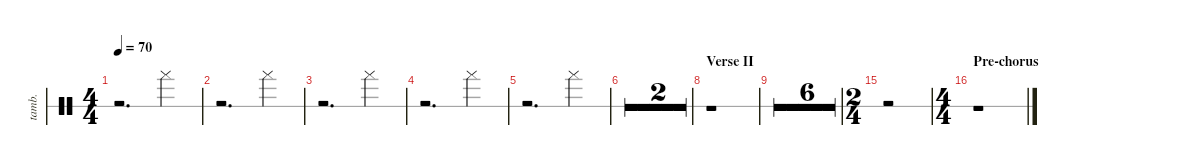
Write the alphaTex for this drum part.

\defaultSystemsLayout 4
\hideDynamics
\bracketExtendMode nobrackets
\otherSystemsTrackNameOrientation horizontal
\track ("Tambourine" "tamb.") {defaultSystemsLayout 4 multiBarRest instrument percussion}
\staff {score 1}
\articulation defaults
\ts (4 4)
\tempo 70
\clef neutral
\ks c
r.2{d dy ff} "Tambourine (hand)".4 |
r.2{d} "Tambourine (hand)".4 |
r.2{d} "Tambourine (hand)".4 |
r.2{d} "Tambourine (hand)".4 |
r.2{d} "Tambourine (hand)".4 |
r.1 |
r.1 |
\section ("" "Verse II")
r.1 |
r.1 |
r.1 |
r.1 |
r.1 |
r.1 |
r.1 |
\ts (2 4)
\beaming (8 2 2)
r.2 |
\ts (4 4)
\beaming (8 2 2 2 2)
\section ("" "Pre-chorus")
r.1
